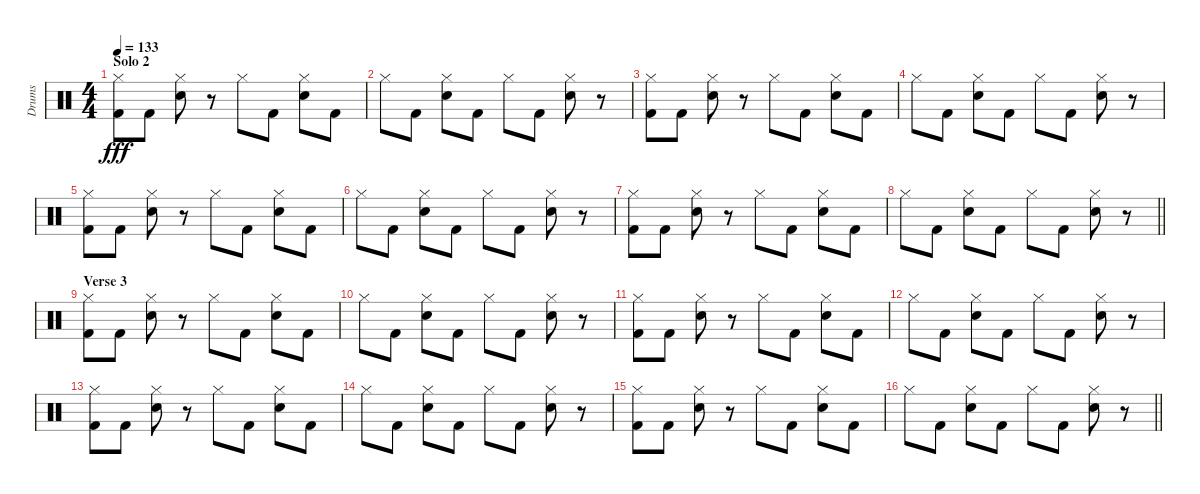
\track ("Drums" "Drums") {instrument percussion}
\staff {score}
\articulation defaults
\ts (4 4)
\section ("" "Solo 2")
\tempo 133
\clef neutral
\ks c
("Hi-Hat (closed)" "Kick (hit) 2").8{dy fff} "Kick (hit) 2".8 ("Hi-Hat (closed)" "Snare (hit) 2").8 r.8 "Hi-Hat (closed)".8 "Kick (hit) 2".8 ("Hi-Hat (closed)" "Snare (hit) 2").8 "Kick (hit) 2".8 |
"Hi-Hat (closed)".8 "Kick (hit) 2".8 ("Hi-Hat (closed)" "Snare (hit) 2").8 "Kick (hit) 2".8 "Hi-Hat (closed)".8 "Kick (hit) 2".8 ("Hi-Hat (closed)" "Snare (hit) 2").8 r.8 |
("Hi-Hat (closed)" "Kick (hit) 2").8 "Kick (hit) 2".8 ("Hi-Hat (closed)" "Snare (hit) 2").8 r.8 "Hi-Hat (closed)".8 "Kick (hit) 2".8 ("Hi-Hat (closed)" "Snare (hit) 2").8 "Kick (hit) 2".8 |
"Hi-Hat (closed)".8 "Kick (hit) 2".8 ("Hi-Hat (closed)" "Snare (hit) 2").8 "Kick (hit) 2".8 "Hi-Hat (closed)".8 "Kick (hit) 2".8 ("Hi-Hat (closed)" "Snare (hit) 2").8 r.8 |
("Hi-Hat (closed)" "Kick (hit) 2").8 "Kick (hit) 2".8 ("Hi-Hat (closed)" "Snare (hit) 2").8 r.8 "Hi-Hat (closed)".8 "Kick (hit) 2".8 ("Hi-Hat (closed)" "Snare (hit) 2").8 "Kick (hit) 2".8 |
"Hi-Hat (closed)".8 "Kick (hit) 2".8 ("Hi-Hat (closed)" "Snare (hit) 2").8 "Kick (hit) 2".8 "Hi-Hat (closed)".8 "Kick (hit) 2".8 ("Hi-Hat (closed)" "Snare (hit) 2").8 r.8 |
("Hi-Hat (closed)" "Kick (hit) 2").8 "Kick (hit) 2".8 ("Hi-Hat (closed)" "Snare (hit) 2").8 r.8 "Hi-Hat (closed)".8 "Kick (hit) 2".8 ("Hi-Hat (closed)" "Snare (hit) 2").8 "Kick (hit) 2".8 |
\barLineRight lightlight "Hi-Hat (closed)".8 "Kick (hit) 2".8
("Hi-Hat (closed)" "Snare (hit) 2").8 "Kick (hit) 2".8 "Hi-Hat (closed)".8 "Kick (hit) 2".8 ("Hi-Hat (closed)" "Snare (hit) 2").8 r.8 |
\section ("" "Verse 3")
("Hi-Hat (closed)" "Kick (hit) 2").8 "Kick (hit) 2".8 ("Hi-Hat (closed)" "Snare (hit) 2").8 r.8 "Hi-Hat (closed)".8 "Kick (hit) 2".8 ("Hi-Hat (closed)" "Snare (hit) 2").8 "Kick (hit) 2".8 |
"Hi-Hat (closed)".8 "Kick (hit) 2".8 ("Hi-Hat (closed)" "Snare (hit) 2").8 "Kick (hit) 2".8 "Hi-Hat (closed)".8 "Kick (hit) 2".8 ("Hi-Hat (closed)" "Snare (hit) 2").8 r.8 |
("Hi-Hat (closed)" "Kick (hit) 2").8 "Kick (hit) 2".8 ("Hi-Hat (closed)" "Snare (hit) 2").8 r.8 "Hi-Hat (closed)".8 "Kick (hit) 2".8 ("Hi-Hat (closed)" "Snare (hit) 2").8 "Kick (hit) 2".8 |
"Hi-Hat (closed)".8 "Kick (hit) 2".8 ("Hi-Hat (closed)" "Snare (hit) 2").8 "Kick (hit) 2".8 "Hi-Hat (closed)".8 "Kick (hit) 2".8 ("Hi-Hat (closed)" "Snare (hit) 2").8 r.8 |
("Hi-Hat (closed)" "Kick (hit) 2").8 "Kick (hit) 2".8 ("Hi-Hat (closed)" "Snare (hit) 2").8 r.8 "Hi-Hat (closed)".8 "Kick (hit) 2".8 ("Hi-Hat (closed)" "Snare (hit) 2").8 "Kick (hit) 2".8 |
"Hi-Hat (closed)".8 "Kick (hit) 2".8 ("Hi-Hat (closed)" "Snare (hit) 2").8 "Kick (hit) 2".8 "Hi-Hat (closed)".8 "Kick (hit) 2".8 ("Hi-Hat (closed)" "Snare (hit) 2").8 r.8 |
("Hi-Hat (closed)" "Kick (hit) 2").8 "Kick (hit) 2".8 ("Hi-Hat (closed)" "Snare (hit) 2").8 r.8 "Hi-Hat (closed)".8 "Kick (hit) 2".8 ("Hi-Hat (closed)" "Snare (hit) 2").8 "Kick (hit) 2".8 |
\barLineRight lightlight "Hi-Hat (closed)".8 "Kick (hit) 2".8
("Hi-Hat (closed)" "Snare (hit) 2").8 "Kick (hit) 2".8 "Hi-Hat (closed)".8 "Kick (hit) 2".8 ("Hi-Hat (closed)" "Snare (hit) 2").8 r.8
